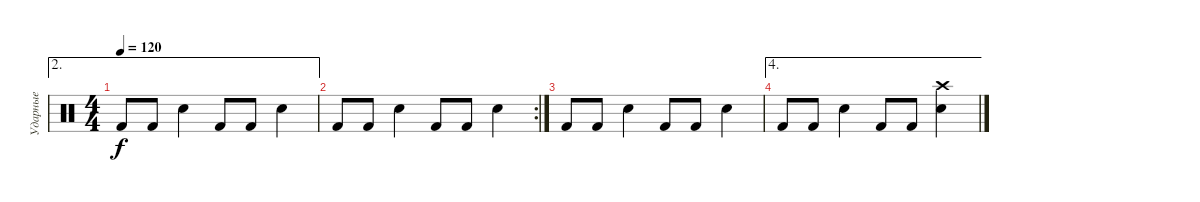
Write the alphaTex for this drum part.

\track ("Ударные" "Ударные") {instrument percussion}
\staff {score}
\articulation defaults
\ae 2
\ts (4 4)
\tempo 120
\clef neutral
\ks c "Kick (hit) 2".8{dy f} "Kick (hit) 2".8 "Electric Snare (hit)".4 "Kick (hit) 2".8 "Kick (hit) 2".8 "Electric Snare (hit)".4
|
\rc 2 "Kick (hit) 2".8 "Kick (hit) 2".8 "Electric Snare (hit)".4 "Kick (hit) 2".8 "Kick (hit) 2".8 "Electric Snare (hit)".4
|
"Kick (hit) 2".8 "Kick (hit) 2".8 "Electric Snare (hit)".4 "Kick (hit) 2".8 "Kick (hit) 2".8 "Electric Snare (hit)".4 |
\ae 4 "Kick (hit) 2".8 "Kick (hit) 2".8 "Electric Snare (hit)".4 "Kick (hit) 2".8 "Kick (hit) 2".8
("Electric Snare (hit)" "Crash high (hit)").4
